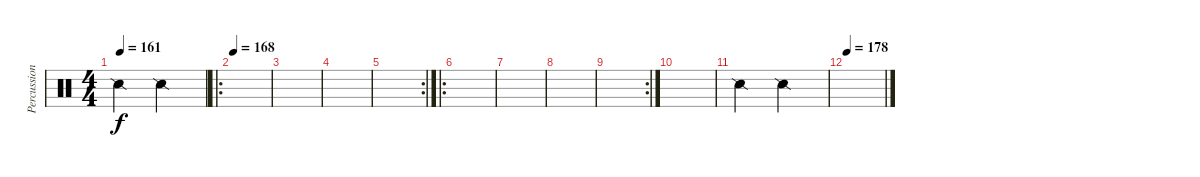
\track ("Percussion" "Percussion") {instrument percussion}
\staff {score}
\articulation defaults
\ts (4 4)
\tempo 161
\clef neutral
\ks c "Snare (side stick) 2".2{dy f} "Snare (side stick) 2".2
|
\ro
\tempo 168
|
|
|
\rc 2
|
\ro
|
|
|
\rc 2
|
|
"Snare (side stick) 2".2 "Snare (side stick) 2".2 |
\tempo 178
